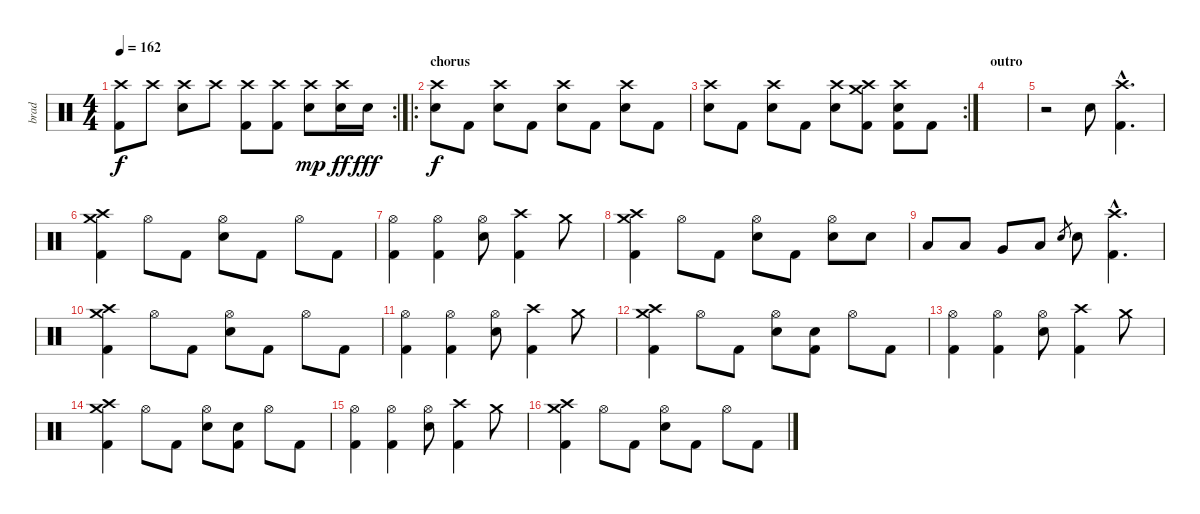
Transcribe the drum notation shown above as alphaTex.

\track ("brad" "brad") {instrument percussion}
\staff {score}
\articulation defaults
\rc 2
\ts (4 4)
\tempo 162
\clef neutral
\ks c
("Crash high (hit)" "Kick (hit) 2").8{dy f} "Crash high (hit)".8 ("Crash high (hit)" "Electric Snare (hit)").8 "Crash high (hit)".8 ("Crash high (hit)" "Kick (hit) 2").8 ("Crash high (hit)" "Kick (hit) 2").8 ("Crash high (hit)" "Electric Snare (hit)").8{dy mp} ("Crash high (hit)" "Electric Snare (hit)").16{dy ff} "Electric Snare (hit)".16{dy fff} |
\ro
\section ("" "chorus")
("Crash high (hit)" "Electric Snare (hit)").8{dy f} "Kick (hit) 2".8 ("Crash high (hit)" "Electric Snare (hit)").8 "Kick (hit) 2".8 ("Crash high (hit)" "Electric Snare (hit)").8 "Kick (hit) 2".8 ("Crash high (hit)" "Electric Snare (hit)").8 "Kick (hit) 2".8 |
\rc 2
("Crash high (hit)" "Electric Snare (hit)").8 "Kick (hit) 2".8 ("Crash high (hit)" "Electric Snare (hit)").8 "Kick (hit) 2".8 ("Crash high (hit)" "Electric Snare (hit)").8 ("Crash medium (hit)" "Crash high (hit)" "Kick (hit) 2").8 ("Crash high (hit)" "Electric Snare (hit)" "Kick (hit) 2").8 "Kick (hit) 2".8 |
\section ("" "outro")
|
r.2 "Electric Snare (hit)".8 ("Crash high (hit)"{hac} "Kick (hit) 2"{hac}).4{d} |
("Crash high (hit)" "Crash medium (hit)" "Kick (hit) 2").4 "Hi-Hat (open)".8 "Kick (hit) 2".8 ("Hi-Hat (open)" "Electric Snare (hit)").8 "Kick (hit) 2".8 "Hi-Hat (open)".8 "Kick (hit) 2".8 |
("Hi-Hat (open)" "Kick (hit) 2").4 ("Hi-Hat (open)" "Kick (hit) 2").4 ("Hi-Hat (open)" "Electric Snare (hit)").8 ("Crash high (hit)" "Kick (hit) 2").4 "Crash medium (hit)".8 |
("Crash high (hit)" "Crash medium (hit)" "Kick (hit) 2").4 "Hi-Hat (open)".8 "Kick (hit) 2".8 ("Hi-Hat (open)" "Electric Snare (hit)").8 "Kick (hit) 2".8 ("Hi-Hat (open)" "Electric Snare (hit)").8 "Electric Snare (hit)".8 |
"Low Tom (hit)".8 "Low Tom (hit)".8 "Very Low Tom (hit)".8 "Low Floor Tom (hit)".8 "Electric Snare (hit)".8{gr} "Electric Snare (hit)".8 ("Crash high (hit)"{hac} "Kick (hit) 2"{hac}).4{d} |
("Crash high (hit)" "Crash medium (hit)" "Kick (hit) 2").4 "Hi-Hat (open)".8 "Kick (hit) 2".8 ("Hi-Hat (open)" "Electric Snare (hit)").8 "Kick (hit) 2".8 "Hi-Hat (open)".8 "Kick (hit) 2".8 |
("Hi-Hat (open)" "Kick (hit) 2").4 ("Hi-Hat (open)" "Kick (hit) 2").4 ("Hi-Hat (open)" "Electric Snare (hit)").8 ("Crash high (hit)" "Kick (hit) 2").4 "Crash medium (hit)".8 |
("Crash high (hit)" "Crash medium (hit)" "Kick (hit) 2").4 "Hi-Hat (open)".8 "Kick (hit) 2".8 ("Hi-Hat (open)" "Electric Snare (hit)").8 ("Electric Snare (hit)" "Kick (hit) 2").8 "Hi-Hat (open)".8 "Kick (hit) 2".8 |
("Hi-Hat (open)" "Kick (hit) 2").4 ("Hi-Hat (open)" "Kick (hit) 2").4 ("Hi-Hat (open)" "Electric Snare (hit)").8 ("Crash high (hit)" "Kick (hit) 2").4 "Crash medium (hit)".8 |
("Crash high (hit)" "Crash medium (hit)" "Kick (hit) 2").4 "Hi-Hat (open)".8 "Kick (hit) 2".8 ("Hi-Hat (open)" "Electric Snare (hit)").8 ("Electric Snare (hit)" "Kick (hit) 2").8 "Hi-Hat (open)".8 "Kick (hit) 2".8 |
("Hi-Hat (open)" "Kick (hit) 2").4 ("Hi-Hat (open)" "Kick (hit) 2").4 ("Hi-Hat (open)" "Electric Snare (hit)").8 ("Crash high (hit)" "Kick (hit) 2").4 "Crash medium (hit)".8 |
("Crash high (hit)" "Crash medium (hit)" "Kick (hit) 2").4 "Hi-Hat (open)".8 "Kick (hit) 2".8 ("Hi-Hat (open)" "Electric Snare (hit)").8 "Kick (hit) 2".8 "Hi-Hat (open)".8 "Kick (hit) 2".8
